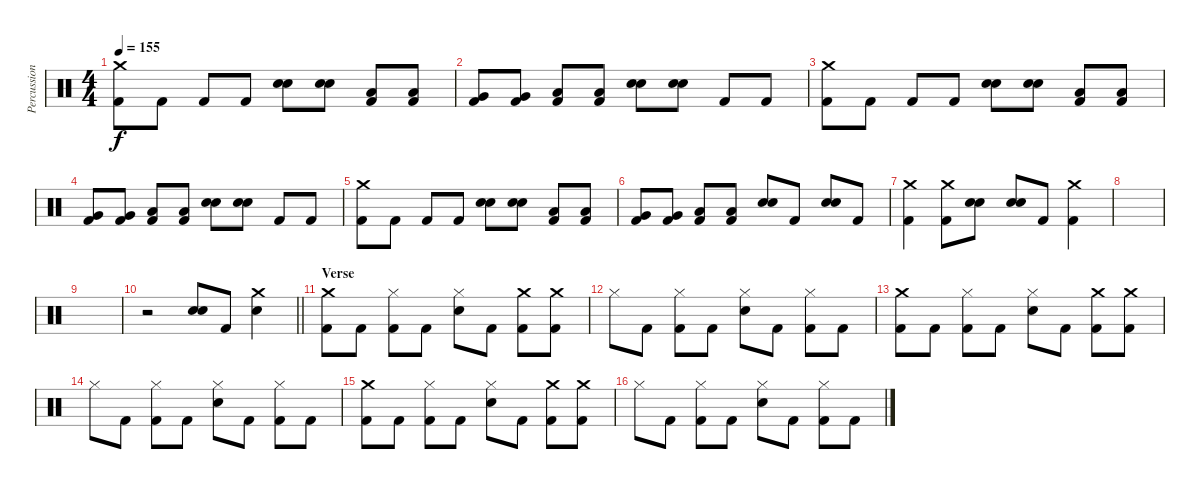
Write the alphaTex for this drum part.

\track ("Percussion" "Percussion") {instrument percussion}
\staff {score}
\articulation defaults
\ts (4 4)
\tempo 155
\clef neutral
\ks c
("Crash medium (hit)" "Kick (hit) 2").8{dy f} "Kick (hit) 2".8 "Kick (hit) 2".8 "Kick (hit) 2".8 ("Snare (hit) 2" "Electric Snare (hit)").8 ("Snare (hit) 2" "Electric Snare (hit)").8 ("Low Tom (hit)" "Kick (hit) 2").8 ("Low Tom (hit)" "Kick (hit) 2").8 |
("Very Low Tom (hit)" "Kick (hit) 2").8 ("Very Low Tom (hit)" "Kick (hit) 2").8 ("Low Floor Tom (hit)" "Kick (hit) 2").8 ("Low Floor Tom (hit)" "Kick (hit) 2").8 ("Snare (hit) 2" "Electric Snare (hit)").8 ("Snare (hit) 2" "Electric Snare (hit)").8 "Kick (hit) 2".8 "Kick (hit) 2".8 |
("Crash medium (hit)" "Kick (hit) 2").8 "Kick (hit) 2".8 "Kick (hit) 2".8 "Kick (hit) 2".8 ("Snare (hit) 2" "Electric Snare (hit)").8 ("Snare (hit) 2" "Electric Snare (hit)").8 ("Low Tom (hit)" "Kick (hit) 2").8 ("Low Tom (hit)" "Kick (hit) 2").8 |
("Very Low Tom (hit)" "Kick (hit) 2").8 ("Very Low Tom (hit)" "Kick (hit) 2").8 ("Low Floor Tom (hit)" "Kick (hit) 2").8 ("Low Floor Tom (hit)" "Kick (hit) 2").8 ("Snare (hit) 2" "Electric Snare (hit)").8 ("Snare (hit) 2" "Electric Snare (hit)").8 "Kick (hit) 2".8 "Kick (hit) 2".8 |
("Crash medium (hit)" "Kick (hit) 2").8 "Kick (hit) 2".8 "Kick (hit) 2".8 "Kick (hit) 2".8 ("Snare (hit) 2" "Electric Snare (hit)").8 ("Snare (hit) 2" "Electric Snare (hit)").8 ("Low Tom (hit)" "Kick (hit) 2").8 ("Low Tom (hit)" "Kick (hit) 2").8 |
("Very Low Tom (hit)" "Kick (hit) 2").8 ("Very Low Tom (hit)" "Kick (hit) 2").8 ("Low Floor Tom (hit)" "Kick (hit) 2").8 ("Low Floor Tom (hit)" "Kick (hit) 2").8 ("Snare (hit) 2" "Electric Snare (hit)").8 "Kick (hit) 2".8 ("Snare (hit) 2" "Electric Snare (hit)").8 "Kick (hit) 2".8 |
("Crash medium (hit)" "Kick (hit) 2").4 ("Crash medium (hit)" "Kick (hit) 2").8 ("Snare (hit) 2" "Electric Snare (hit)").8 ("Snare (hit) 2" "Electric Snare (hit)").8 "Kick (hit) 2".8 ("Crash medium (hit)" "Kick (hit) 2").4 |
|
|
\barLineRight lightlight
r.2 ("Snare (hit) 2" "Electric Snare (hit)").8 "Kick (hit) 2".8 ("Crash medium (hit)" "Electric Snare (hit)").4 |
\section ("" "Verse")
("Crash medium (hit)" "Kick (hit) 2").8 "Kick (hit) 2".8 ("Hi-Hat (closed)" "Kick (hit) 2").8 "Kick (hit) 2".8 ("Hi-Hat (closed)" "Electric Snare (hit)").8 "Kick (hit) 2".8 ("Crash medium (hit)" "Kick (hit) 2").8 ("Crash medium (hit)" "Kick (hit) 2").8 |
"Hi-Hat (closed)".8 "Kick (hit) 2".8 ("Hi-Hat (closed)" "Kick (hit) 2").8 "Kick (hit) 2".8 ("Hi-Hat (closed)" "Electric Snare (hit)").8 "Kick (hit) 2".8 ("Hi-Hat (closed)" "Kick (hit) 2").8 "Kick (hit) 2".8 |
("Crash medium (hit)" "Kick (hit) 2").8 "Kick (hit) 2".8 ("Hi-Hat (closed)" "Kick (hit) 2").8 "Kick (hit) 2".8 ("Hi-Hat (closed)" "Electric Snare (hit)").8 "Kick (hit) 2".8 ("Crash medium (hit)" "Kick (hit) 2").8 ("Crash medium (hit)" "Kick (hit) 2").8 |
"Hi-Hat (closed)".8 "Kick (hit) 2".8 ("Hi-Hat (closed)" "Kick (hit) 2").8 "Kick (hit) 2".8 ("Hi-Hat (closed)" "Electric Snare (hit)").8 "Kick (hit) 2".8 ("Hi-Hat (closed)" "Kick (hit) 2").8 "Kick (hit) 2".8 |
("Crash medium (hit)" "Kick (hit) 2").8 "Kick (hit) 2".8 ("Hi-Hat (closed)" "Kick (hit) 2").8 "Kick (hit) 2".8 ("Hi-Hat (closed)" "Electric Snare (hit)").8 "Kick (hit) 2".8 ("Crash medium (hit)" "Kick (hit) 2").8 ("Crash medium (hit)" "Kick (hit) 2").8 |
"Hi-Hat (closed)".8 "Kick (hit) 2".8 ("Hi-Hat (closed)" "Kick (hit) 2").8 "Kick (hit) 2".8 ("Hi-Hat (closed)" "Electric Snare (hit)").8 "Kick (hit) 2".8 ("Hi-Hat (closed)" "Kick (hit) 2").8 "Kick (hit) 2".8
